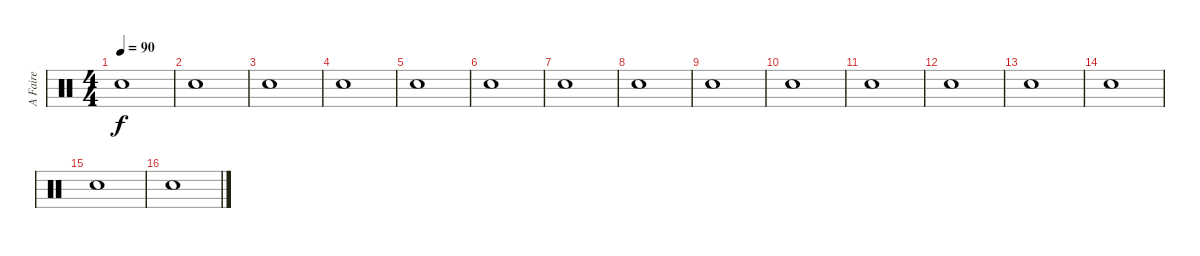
\track ("A Faire" "A Faire") {instrument percussion}
\staff {score}
\articulation defaults
\ts (4 4)
\tempo 90
\clef neutral
\ks c "Snare (hit)"{x}.1{dy f}
|
"Snare (hit)"{x}.1 |
"Snare (hit)"{x}.1 |
"Snare (hit)"{x}.1 |
"Snare (hit)"{x}.1 |
"Snare (hit)"{x}.1 |
"Snare (hit)"{x}.1 |
"Snare (hit)"{x}.1 |
"Snare (hit)"{x}.1 |
"Snare (hit)"{x}.1 |
"Snare (hit)"{x}.1 |
"Snare (hit)"{x}.1 |
"Snare (hit)"{x}.1 |
"Snare (hit)"{x}.1 |
"Snare (hit)"{x}.1 |
"Snare (hit)"{x}.1
